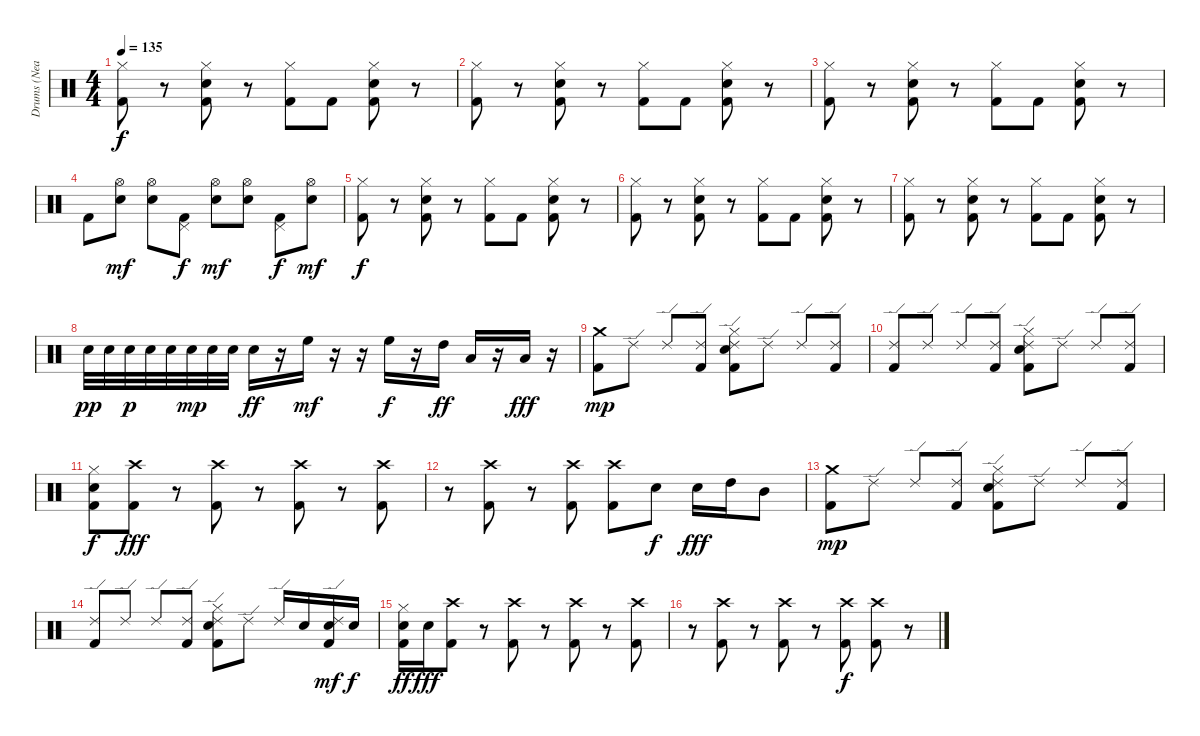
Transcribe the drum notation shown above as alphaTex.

\track ("Drums (Neal Peart)" "Drums (Nea") {instrument percussion}
\staff {score}
\articulation defaults
\ts (4 4)
\tempo 135
\clef neutral
\ks c
("Hi-Hat (closed)" "Kick (hit) 2").8{dy f} r.8 ("Hi-Hat (closed)" "Electric Snare (hit)" "Kick (hit) 2").8 r.8 ("Hi-Hat (closed)" "Kick (hit) 2").8 "Kick (hit) 2".8 ("Hi-Hat (closed)" "Electric Snare (hit)" "Kick (hit) 2").8 r.8 |
("Hi-Hat (closed)" "Kick (hit) 2").8 r.8 ("Hi-Hat (closed)" "Electric Snare (hit)" "Kick (hit) 2").8 r.8 ("Hi-Hat (closed)" "Kick (hit) 2").8 "Kick (hit) 2".8 ("Hi-Hat (closed)" "Electric Snare (hit)" "Kick (hit) 2").8 r.8 |
("Hi-Hat (closed)" "Kick (hit) 2").8 r.8 ("Hi-Hat (closed)" "Electric Snare (hit)" "Kick (hit) 2").8 r.8 ("Hi-Hat (closed)" "Kick (hit) 2").8 "Kick (hit) 2".8 ("Hi-Hat (closed)" "Electric Snare (hit)" "Kick (hit) 2").8 r.8 |
"Kick (hit) 2".8 ("Hi-Hat (open)" "Electric Snare (hit)").8{dy mf} ("Hi-Hat (open)" "Electric Snare (hit)").8 ("Pedal Hi-Hat (hit)" "Kick (hit) 2").8{dy f} ("Hi-Hat (open)" "Electric Snare (hit)").8{dy mf} ("Hi-Hat (open)" "Electric Snare (hit)").8 ("Pedal Hi-Hat (hit)" "Kick (hit) 2").8{dy f} ("Hi-Hat (open)" "Electric Snare (hit)").8{dy mf} |
("Hi-Hat (closed)" "Kick (hit) 2").8{dy f} r.8 ("Hi-Hat (closed)" "Electric Snare (hit)" "Kick (hit) 2").8 r.8 ("Hi-Hat (closed)" "Kick (hit) 2").8 "Kick (hit) 2".8 ("Hi-Hat (closed)" "Electric Snare (hit)" "Kick (hit) 2").8 r.8 |
("Hi-Hat (closed)" "Kick (hit) 2").8 r.8 ("Hi-Hat (closed)" "Electric Snare (hit)" "Kick (hit) 2").8 r.8 ("Hi-Hat (closed)" "Kick (hit) 2").8 "Kick (hit) 2".8 ("Hi-Hat (closed)" "Electric Snare (hit)" "Kick (hit) 2").8 r.8 |
("Hi-Hat (closed)" "Kick (hit) 2").8 r.8 ("Hi-Hat (closed)" "Electric Snare (hit)" "Kick (hit) 2").8 r.8 ("Hi-Hat (closed)" "Kick (hit) 2").8 "Kick (hit) 2".8 ("Hi-Hat (closed)" "Electric Snare (hit)" "Kick (hit) 2").8 r.8 |
"Electric Snare (hit)".32{dy pp} "Electric Snare (hit)".32 "Electric Snare (hit)".32{dy p} "Electric Snare (hit)".32 "Electric Snare (hit)".32 "Electric Snare (hit)".32{dy mp} "Electric Snare (hit)".32 "Electric Snare (hit)".32 "Electric Snare (hit)".16{dy ff} r.16 "High Floor Tom (hit)".16{dy mf} r.16 r.16 "High Floor Tom (hit)".16{dy f} r.16 "High Tom (hit)".16{dy ff} "Low Tom (hit)".16 r.16 "Low Tom (hit)".16{dy fff} r.16 |
("Crash medium (hit)" "Kick (hit) 2").8{dy mp} "Ride (edge) 2".8 "Ride (edge) 2".8 ("Ride (edge) 2" "Kick (hit) 2").8 ("Ride (edge) 2" "Hi-Hat (closed)" "Electric Snare (hit)" "Kick (hit) 2").8 "Ride (edge) 2".8 "Ride (edge) 2".8 ("Ride (edge) 2" "Kick (hit) 2").8 |
("Ride (edge) 2" "Kick (hit) 2").8 "Ride (edge) 2".8 "Ride (edge) 2".8 ("Ride (edge) 2" "Kick (hit) 2").8 ("Ride (edge) 2" "Hi-Hat (closed)" "Electric Snare (hit)" "Kick (hit) 2").8 "Ride (edge) 2".8 "Ride (edge) 2".8 ("Ride (edge) 2" "Kick (hit) 2").8 |
("Hi-Hat (closed)" "Electric Snare (hit)" "Kick (hit) 2").8{dy f} ("Crash high (hit)" "Kick (hit) 2").8{dy fff} r.8{volume 0} ("Crash high (hit)" "Kick (hit) 2").8{volume 16} r.8{volume 0} ("Crash high (hit)" "Kick (hit) 2").8{volume 16} r.8{volume 0} ("Crash high (hit)" "Kick (hit) 2").8{volume 16} |
r.8{volume 0} ("Crash high (hit)" "Kick (hit) 2").8{volume 16} r.8{volume 0} ("Crash high (hit)" "Kick (hit) 2").8{volume 16} ("Crash high (hit)" "Kick (hit) 2").8 "Electric Snare (hit)".8{dy f} "Electric Snare (hit)".16{dy fff} "High Tom (hit)".16 "Mid Tom (hit)".8 |
("Crash medium (hit)" "Kick (hit) 2").8{dy mp volume 16} "Ride (edge) 2".8 "Ride (edge) 2".8 ("Ride (edge) 2" "Kick (hit) 2").8 ("Ride (edge) 2" "Hi-Hat (closed)" "Electric Snare (hit)" "Kick (hit) 2").8 "Ride (edge) 2".8 "Ride (edge) 2".8 ("Ride (edge) 2" "Kick (hit) 2").8 |
("Ride (edge) 2" "Kick (hit) 2").8 "Ride (edge) 2".8 "Ride (edge) 2".8 ("Ride (edge) 2" "Kick (hit) 2").8 ("Ride (edge) 2" "Hi-Hat (closed)" "Electric Snare (hit)" "Kick (hit) 2").8 "Ride (edge) 2".8 "Ride (edge) 2".16 "Electric Snare (hit)".16 ("Ride (edge) 2" "Electric Snare (hit)" "Kick (hit) 2").16{dy mf} "Electric Snare (hit)".16{dy f} |
("Hi-Hat (closed)" "Electric Snare (hit)" "Kick (hit) 2").16{dy ff} "Electric Snare (hit)".16{dy fff} ("Crash high (hit)" "Kick (hit) 2").8 r.8{volume 0} ("Crash high (hit)" "Kick (hit) 2").8{volume 16} r.8{volume 0} ("Crash high (hit)" "Kick (hit) 2").8{volume 16} r.8{volume 0} ("Crash high (hit)" "Kick (hit) 2").8{volume 16} |
r.8{volume 0} ("Crash high (hit)" "Kick (hit) 2").8{volume 16} r.8{volume 0} ("Crash high (hit)" "Kick (hit) 2").8{volume 16} r.8{volume 0} ("Crash high (hit)" "Kick (hit) 2").8{dy f volume 16} ("Crash high (hit)" "Kick (hit) 2").8 r.8{volume 0}
